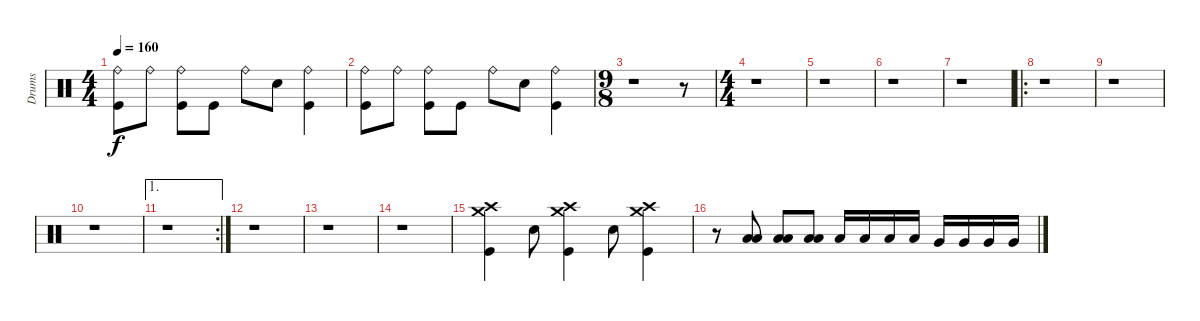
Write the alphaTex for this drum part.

\track ("Drums" "Drums") {instrument percussion}
\staff {score}
\articulation defaults
\ts (4 4)
\tempo 160
\clef neutral
\ks c
("Kick (hit)" "Ride (bell)").8{dy f} "Ride (bell)".8 ("Kick (hit)" "Ride (bell)").8 "Kick (hit)".8 "Ride (bell)".8 "Electric Snare (hit)".8 ("Kick (hit)" "Ride (bell)").4 |
("Kick (hit)" "Ride (bell)").8 "Ride (bell)".8 ("Kick (hit)" "Ride (bell)").8 "Kick (hit)".8 "Ride (bell)".8 "Electric Snare (hit)".8 ("Kick (hit)" "Ride (bell)").4 |
\ts (9 8)
r.1 r.8 |
\ts (4 4)
r.1 |
r.1 |
r.1 |
r.1 |
\ro
r.1 |
r.1 |
r.1 |
\ae 1
\rc 2
r.1 |
r.1 |
r.1 |
r.1 |
("Kick (hit)" "Crash medium (hit)" "Crash high (hit)").4 "Electric Snare (hit)".8 ("Kick (hit)" "Crash medium (hit)" "Crash high (hit)").4 "Electric Snare (hit)".8 ("Kick (hit)" "Crash medium (hit)" "Crash high (hit)").4 |
r.8 ("Low Floor Tom (hit)" "Low Tom (hit)").8 ("Low Floor Tom (hit)" "Low Tom (hit)").8 ("Low Floor Tom (hit)" "Low Tom (hit)").8 "Low Tom (hit)".16 "Low Tom (hit)".16 "Low Tom (hit)".16 "Low Tom (hit)".16 "Very Low Tom (hit)".16 "Very Low Tom (hit)".16 "Very Low Tom (hit)".16 "Very Low Tom (hit)".16
